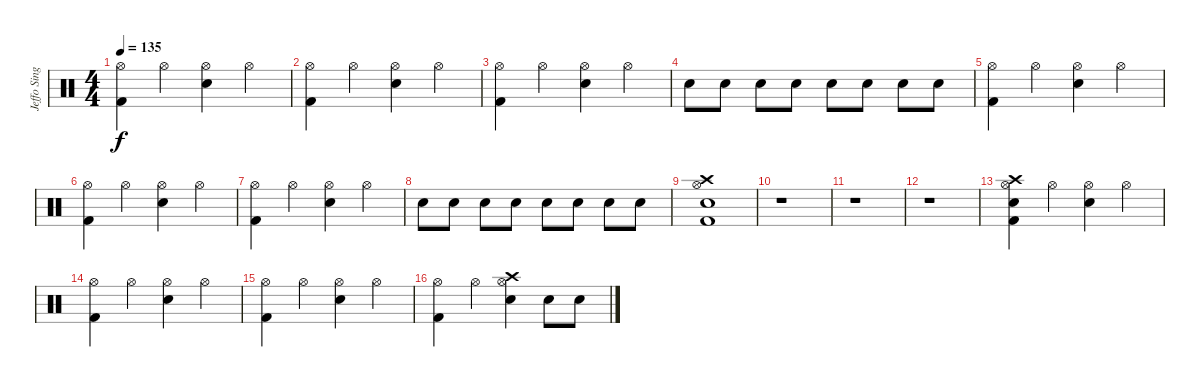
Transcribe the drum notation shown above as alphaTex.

\track ("Jeffo Singer" "Jeffo Sing") {instrument percussion}
\staff {score}
\articulation defaults
\ts (4 4)
\tempo 135
\clef neutral
\ks c
("Hi-Hat (open)" "Kick (hit) 2").4{dy f} "Hi-Hat (open)".4 ("Hi-Hat (open)" "Snare (hit) 2").4 "Hi-Hat (open)".4 |
("Hi-Hat (open)" "Kick (hit) 2").4 "Hi-Hat (open)".4 ("Hi-Hat (open)" "Snare (hit) 2").4 "Hi-Hat (open)".4 |
("Hi-Hat (open)" "Kick (hit) 2").4 "Hi-Hat (open)".4 ("Hi-Hat (open)" "Snare (hit) 2").4 "Hi-Hat (open)".4 |
"Snare (hit) 2".8 "Snare (hit) 2".8 "Snare (hit) 2".8 "Snare (hit) 2".8 "Snare (hit) 2".8 "Snare (hit) 2".8 "Snare (hit) 2".8 "Snare (hit) 2".8 |
("Hi-Hat (open)" "Kick (hit) 2").4 "Hi-Hat (open)".4 ("Hi-Hat (open)" "Snare (hit) 2").4 "Hi-Hat (open)".4 |
("Hi-Hat (open)" "Kick (hit) 2").4 "Hi-Hat (open)".4 ("Hi-Hat (open)" "Snare (hit) 2").4 "Hi-Hat (open)".4 |
("Hi-Hat (open)" "Kick (hit) 2").4 "Hi-Hat (open)".4 ("Hi-Hat (open)" "Snare (hit) 2").4 "Hi-Hat (open)".4 |
"Snare (hit) 2".8 "Snare (hit) 2".8 "Snare (hit) 2".8 "Snare (hit) 2".8 "Snare (hit) 2".8 "Snare (hit) 2".8 "Snare (hit) 2".8 "Snare (hit) 2".8 |
("Hi-Hat (open)" "Kick (hit) 2" "Snare (hit) 2" "Crash high (hit)").1 |
r.1 |
r.1 |
r.1 |
("Hi-Hat (open)" "Kick (hit) 2" "Snare (hit) 2" "Crash high (hit)").4 "Hi-Hat (open)".4 ("Hi-Hat (open)" "Snare (hit) 2").4 "Hi-Hat (open)".4 |
("Hi-Hat (open)" "Kick (hit) 2").4 "Hi-Hat (open)".4 ("Hi-Hat (open)" "Snare (hit) 2").4 "Hi-Hat (open)".4 |
("Hi-Hat (open)" "Kick (hit) 2").4 "Hi-Hat (open)".4 ("Hi-Hat (open)" "Snare (hit) 2").4 "Hi-Hat (open)".4 |
("Hi-Hat (open)" "Kick (hit) 2").4 "Hi-Hat (open)".4 ("Hi-Hat (open)" "Snare (hit) 2" "Crash high (hit)").4 "Snare (hit) 2".8 "Snare (hit) 2".8
